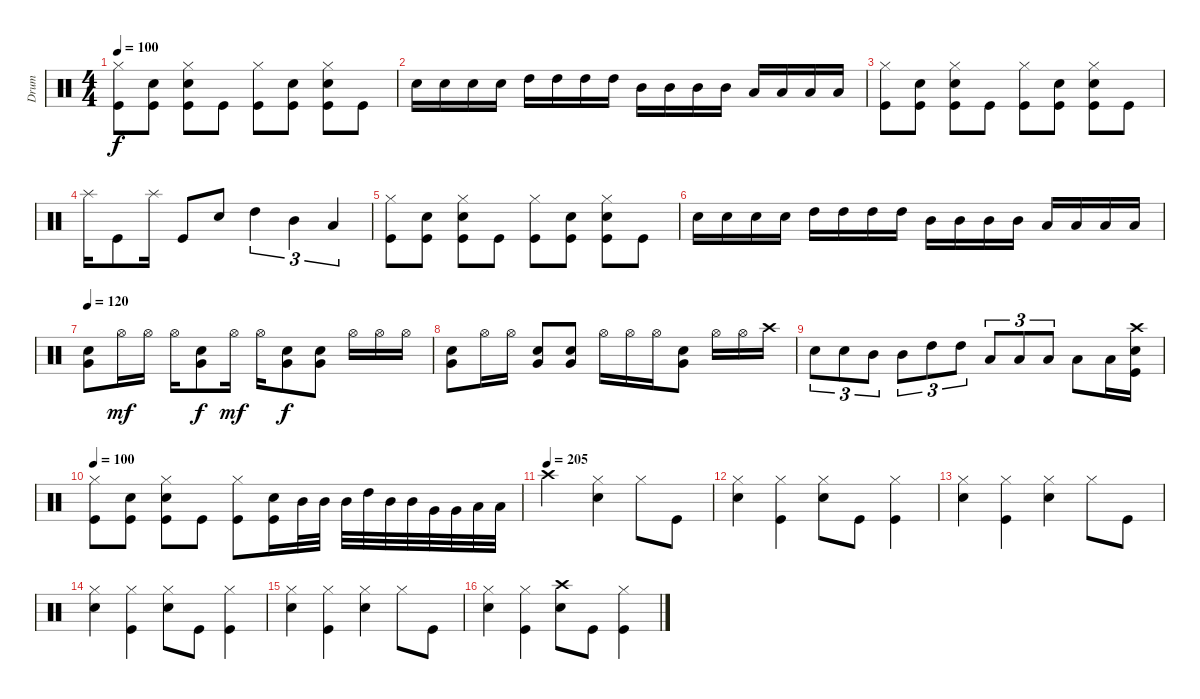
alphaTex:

\track ("Drum" "Drum") {instrument percussion}
\staff {score}
\articulation defaults
\ts (4 4)
\tempo 100
\clef neutral
\ks c
("Hi-Hat (closed)" "Kick (hit)").8{dy f} ("Snare (hit) 2" "Kick (hit)").8 ("Hi-Hat (closed)" "Snare (hit) 2" "Kick (hit)").8 "Kick (hit)".8 ("Hi-Hat (closed)" "Kick (hit)").8 ("Snare (hit) 2" "Kick (hit)").8 ("Hi-Hat (closed)" "Snare (hit) 2" "Kick (hit)").8 "Kick (hit)".8 |
"Snare (hit) 2".16 "Snare (hit) 2".16 "Snare (hit) 2".16 "Snare (hit) 2".16 "High Tom (hit)".16 "High Tom (hit)".16 "High Tom (hit)".16 "High Tom (hit)".16 "Mid Tom (hit)".16 "Mid Tom (hit)".16 "Mid Tom (hit)".16 "Mid Tom (hit)".16 "Low Floor Tom (hit)".16 "Low Floor Tom (hit)".16 "Low Floor Tom (hit)".16 "Low Floor Tom (hit)".16 |
("Hi-Hat (closed)" "Kick (hit)").8 ("Snare (hit) 2" "Kick (hit)").8 ("Hi-Hat (closed)" "Snare (hit) 2" "Kick (hit)").8 "Kick (hit)".8 ("Hi-Hat (closed)" "Kick (hit)").8 ("Snare (hit) 2" "Kick (hit)").8 ("Hi-Hat (closed)" "Snare (hit) 2" "Kick (hit)").8 "Kick (hit)".8 |
"Splash (hit)".16 "Kick (hit)".8 "Splash (hit)".16 "Kick (hit)".8 "Snare (hit) 2".8 "High Tom (hit)".4{tu (3 2)} "Mid Tom (hit)".4{tu (3 2)} "Low Floor Tom (hit)".4{tu (3 2)} |
("Hi-Hat (closed)" "Kick (hit)").8 ("Snare (hit) 2" "Kick (hit)").8 ("Hi-Hat (closed)" "Snare (hit) 2" "Kick (hit)").8 "Kick (hit)".8 ("Hi-Hat (closed)" "Kick (hit)").8 ("Snare (hit) 2" "Kick (hit)").8 ("Hi-Hat (closed)" "Snare (hit) 2" "Kick (hit)").8 "Kick (hit)".8 |
"Snare (hit) 2".16 "Snare (hit) 2".16 "Snare (hit) 2".16 "Snare (hit) 2".16 "High Tom (hit)".16 "High Tom (hit)".16 "High Tom (hit)".16 "High Tom (hit)".16 "Mid Tom (hit)".16 "Mid Tom (hit)".16 "Mid Tom (hit)".16 "Mid Tom (hit)".16 "Low Floor Tom (hit)".16 "Low Floor Tom (hit)".16 "Low Floor Tom (hit)".16 "Low Floor Tom (hit)".16 |
\tempo 120
("Snare (hit) 2" "Very Low Tom (hit)").8 "Hi-Hat (open)".16{dy mf} "Hi-Hat (open)".16 "Hi-Hat (open)".16 ("Snare (hit) 2" "Very Low Tom (hit)").8{dy f} "Hi-Hat (open)".16{dy mf} "Hi-Hat (open)".16 ("Snare (hit) 2" "Very Low Tom (hit)").8{dy f} ("Snare (hit) 2" "Very Low Tom (hit)").8 "Hi-Hat (open)".16 "Hi-Hat (open)".16 "Hi-Hat (open)".16 |
("Snare (hit) 2" "Very Low Tom (hit)").8 "Hi-Hat (open)".16 "Hi-Hat (open)".16 ("Snare (hit) 2" "Very Low Tom (hit)").8 ("Snare (hit) 2" "Very Low Tom (hit)").8 "Hi-Hat (open)".16 "Hi-Hat (open)".16 "Hi-Hat (open)".16 ("Snare (hit) 2" "Very Low Tom (hit)").8 "Hi-Hat (open)".16 "Hi-Hat (open)".16 "Crash high (hit)".16 |
"Snare (hit) 2".8{tu (3 2)} "Snare (hit) 2".8{tu (3 2)} "Mid Tom (hit)".8{tu (3 2)} "Mid Tom (hit)".8{tu (3 2)} "High Tom (hit)".8{tu (3 2)} "High Tom (hit)".8{tu (3 2)} "Low Floor Tom (hit)".8{tu (3 2)} "Low Floor Tom (hit)".8{tu (3 2)} "Low Floor Tom (hit)".8{tu (3 2)} "Low Floor Tom (hit)".8 "Low Floor Tom (hit)".16 ("Crash high (hit)" "Snare (hit) 2" "Kick (hit)").16 |
\tempo 100
("Hi-Hat (closed)" "Kick (hit)").8 ("Snare (hit) 2" "Kick (hit)").8 ("Hi-Hat (closed)" "Snare (hit) 2" "Kick (hit)").8 "Kick (hit)".8 ("Hi-Hat (closed)" "Kick (hit)").8 ("Snare (hit) 2" "Kick (hit)").16 "Mid Tom (hit)".32 "Mid Tom (hit)".32 "Mid Tom (hit)".32 "High Tom (hit)".32 "Mid Tom (hit)".32 "Mid Tom (hit)".32 "Very Low Tom (hit)".32 "Very Low Tom (hit)".32 "Low Floor Tom (hit)".32 "Low Floor Tom (hit)".32 |
\tempo (205)
"Crash high (hit)".2 ("Hi-Hat (closed)" "Snare (hit) 2").4 "Hi-Hat (closed)".8 "Kick (hit)".8 |
("Hi-Hat (closed)" "Snare (hit) 2").4 ("Hi-Hat (closed)" "Kick (hit)").4 ("Hi-Hat (closed)" "Snare (hit) 2").8 "Kick (hit)".8 ("Hi-Hat (closed)" "Kick (hit)").4 |
("Hi-Hat (closed)" "Snare (hit) 2").4 ("Hi-Hat (closed)" "Kick (hit)").4 ("Hi-Hat (closed)" "Snare (hit) 2").4 "Hi-Hat (closed)".8 "Kick (hit)".8 |
("Hi-Hat (closed)" "Snare (hit) 2").4 ("Hi-Hat (closed)" "Kick (hit)").4 ("Hi-Hat (closed)" "Snare (hit) 2").8 "Kick (hit)".8 ("Hi-Hat (closed)" "Kick (hit)").4 |
("Hi-Hat (closed)" "Snare (hit) 2").4 ("Hi-Hat (closed)" "Kick (hit)").4 ("Hi-Hat (closed)" "Snare (hit) 2").4 "Hi-Hat (closed)".8 "Kick (hit)".8 |
("Hi-Hat (closed)" "Snare (hit) 2").4 ("Hi-Hat (closed)" "Kick (hit)").4 ("Crash high (hit)" "Snare (hit) 2").8 "Kick (hit)".8 ("Hi-Hat (closed)" "Kick (hit)").4
